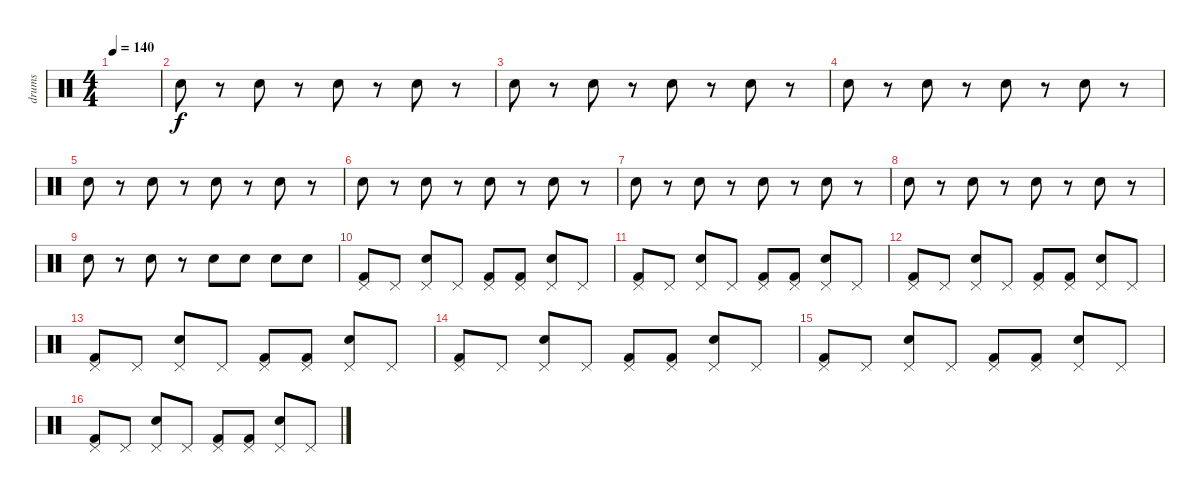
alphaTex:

\track ("drums" "drums") {instrument percussion}
\staff {score}
\articulation defaults
\ts (4 4)
\tempo 140
\clef neutral
\ks c
|
"Hand Clap (hit)".8 r.8 "Hand Clap (hit)".8 r.8 "Hand Clap (hit)".8 r.8 "Hand Clap (hit)".8 r.8 |
"Hand Clap (hit)".8 r.8 "Hand Clap (hit)".8 r.8 "Hand Clap (hit)".8 r.8 "Hand Clap (hit)".8 r.8 |
"Hand Clap (hit)".8 r.8 "Hand Clap (hit)".8 r.8 "Hand Clap (hit)".8 r.8 "Hand Clap (hit)".8 r.8 |
"Hand Clap (hit)".8 r.8 "Hand Clap (hit)".8 r.8 "Hand Clap (hit)".8 r.8 "Hand Clap (hit)".8 r.8 |
"Hand Clap (hit)".8 r.8 "Hand Clap (hit)".8 r.8 "Hand Clap (hit)".8 r.8 "Hand Clap (hit)".8 r.8 |
"Hand Clap (hit)".8 r.8 "Hand Clap (hit)".8 r.8 "Hand Clap (hit)".8 r.8 "Hand Clap (hit)".8 r.8 |
"Hand Clap (hit)".8 r.8 "Hand Clap (hit)".8 r.8 "Hand Clap (hit)".8 r.8 "Hand Clap (hit)".8 r.8 |
"Hand Clap (hit)".8 r.8 "Hand Clap (hit)".8 r.8 "Hand Clap (hit)".8 "Snare (hit) 2".8 "Snare (hit) 2".8 "Snare (hit) 2".8 |
("Kick (hit) 2" "Pedal Hi-Hat (hit)").8 "Pedal Hi-Hat (hit)".8 ("Snare (hit) 2" "Pedal Hi-Hat (hit)").8 "Pedal Hi-Hat (hit)".8 ("Kick (hit) 2" "Pedal Hi-Hat (hit)").8 ("Kick (hit) 2" "Pedal Hi-Hat (hit)").8 ("Snare (hit) 2" "Pedal Hi-Hat (hit)").8 "Pedal Hi-Hat (hit)".8 |
("Kick (hit) 2" "Pedal Hi-Hat (hit)").8 "Pedal Hi-Hat (hit)".8 ("Snare (hit) 2" "Pedal Hi-Hat (hit)").8 "Pedal Hi-Hat (hit)".8 ("Kick (hit) 2" "Pedal Hi-Hat (hit)").8 ("Kick (hit) 2" "Pedal Hi-Hat (hit)").8 ("Snare (hit) 2" "Pedal Hi-Hat (hit)").8 "Pedal Hi-Hat (hit)".8 |
("Kick (hit) 2" "Pedal Hi-Hat (hit)").8 "Pedal Hi-Hat (hit)".8 ("Snare (hit) 2" "Pedal Hi-Hat (hit)").8 "Pedal Hi-Hat (hit)".8 ("Kick (hit) 2" "Pedal Hi-Hat (hit)").8 ("Kick (hit) 2" "Pedal Hi-Hat (hit)").8 ("Snare (hit) 2" "Pedal Hi-Hat (hit)").8 "Pedal Hi-Hat (hit)".8 |
("Kick (hit) 2" "Pedal Hi-Hat (hit)").8 "Pedal Hi-Hat (hit)".8 ("Snare (hit) 2" "Pedal Hi-Hat (hit)").8 "Pedal Hi-Hat (hit)".8 ("Kick (hit) 2" "Pedal Hi-Hat (hit)").8 ("Kick (hit) 2" "Pedal Hi-Hat (hit)").8 ("Snare (hit) 2" "Pedal Hi-Hat (hit)").8 "Pedal Hi-Hat (hit)".8 |
("Kick (hit) 2" "Pedal Hi-Hat (hit)").8 "Pedal Hi-Hat (hit)".8 ("Snare (hit) 2" "Pedal Hi-Hat (hit)").8 "Pedal Hi-Hat (hit)".8 ("Kick (hit) 2" "Pedal Hi-Hat (hit)").8 ("Kick (hit) 2" "Pedal Hi-Hat (hit)").8 ("Snare (hit) 2" "Pedal Hi-Hat (hit)").8 "Pedal Hi-Hat (hit)".8 |
("Kick (hit) 2" "Pedal Hi-Hat (hit)").8 "Pedal Hi-Hat (hit)".8 ("Snare (hit) 2" "Pedal Hi-Hat (hit)").8 "Pedal Hi-Hat (hit)".8 ("Kick (hit) 2" "Pedal Hi-Hat (hit)").8 ("Kick (hit) 2" "Pedal Hi-Hat (hit)").8 ("Snare (hit) 2" "Pedal Hi-Hat (hit)").8 "Pedal Hi-Hat (hit)".8 |
("Kick (hit) 2" "Pedal Hi-Hat (hit)").8 "Pedal Hi-Hat (hit)".8 ("Snare (hit) 2" "Pedal Hi-Hat (hit)").8 "Pedal Hi-Hat (hit)".8 ("Kick (hit) 2" "Pedal Hi-Hat (hit)").8 ("Kick (hit) 2" "Pedal Hi-Hat (hit)").8 ("Snare (hit) 2" "Pedal Hi-Hat (hit)").8 "Pedal Hi-Hat (hit)".8
